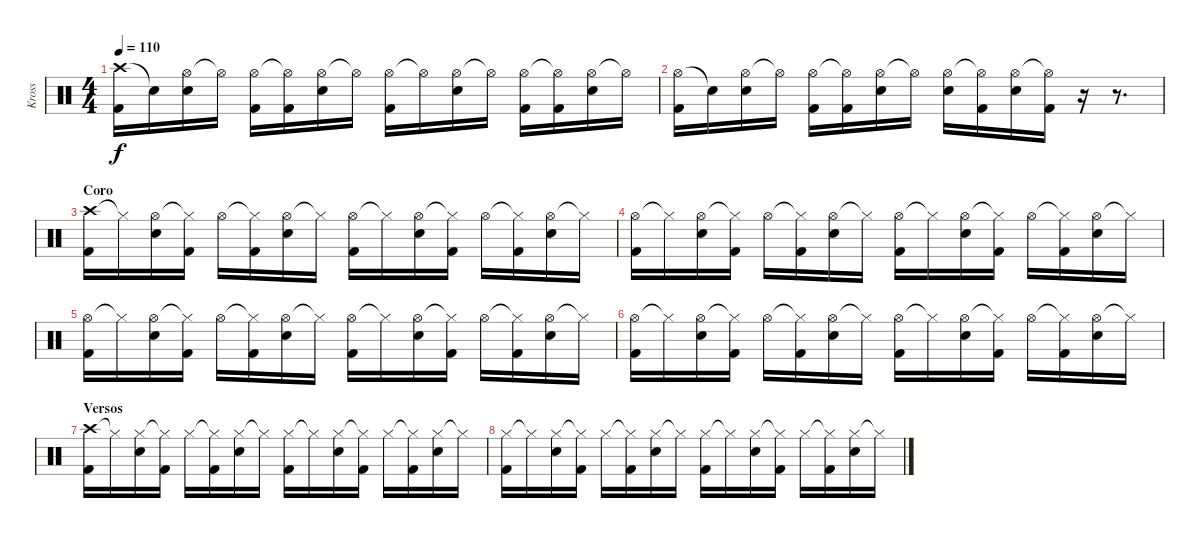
\track ("Kross" "Kross") {instrument percussion}
\staff {score}
\articulation defaults
\ts (4 4)
\tempo 110
\clef neutral
\ks c
("Crash high (hit)" "Kick (hit) 2").16{dy f} "Snare (hit)"{t}.16 ("Hi-Hat (open)" "Snare (hit) 2").16 "Hi-Hat (open)"{t}.16 ("Hi-Hat (open)" "Kick (hit) 2").16 ("Hi-Hat (open)"{t} "Kick (hit) 2").16 ("Hi-Hat (open)" "Snare (hit) 2").16 "Hi-Hat (open)"{t}.16 ("Hi-Hat (open)" "Kick (hit) 2").16 "Hi-Hat (open)"{t}.16 ("Hi-Hat (open)" "Snare (hit) 2").16 "Hi-Hat (open)"{t}.16 ("Hi-Hat (open)" "Kick (hit) 2").16 ("Hi-Hat (open)"{t} "Kick (hit) 2").16 ("Hi-Hat (open)" "Snare (hit) 2").16 "Hi-Hat (open)"{t}.16 |
("Hi-Hat (open)" "Kick (hit) 2").16 "Snare (hit)"{t}.16 ("Hi-Hat (open)" "Snare (hit) 2").16 "Hi-Hat (open)"{t}.16 ("Hi-Hat (open)" "Kick (hit) 2").16 ("Hi-Hat (open)"{t} "Kick (hit) 2").16 ("Hi-Hat (open)" "Snare (hit) 2").16 "Hi-Hat (open)"{t}.16 ("Hi-Hat (open)" "Snare (hit) 2").16 ("Hi-Hat (open)"{t} "Kick (hit) 2").16 ("Hi-Hat (open)" "Snare (hit) 2").16 ("Hi-Hat (open)"{t} "Kick (hit) 2").16 r.16 r.8{d} |
\section ("" "Coro")
("Crash high (hit)" "Kick (hit) 2").16 "Hi-Hat (closed)"{t}.16 ("Hi-Hat (open)" "Snare (hit) 2").16 ("Hi-Hat (closed)"{t} "Kick (hit) 2").16 "Hi-Hat (open)".16 ("Hi-Hat (closed)"{t} "Kick (hit) 2").16 ("Hi-Hat (open)" "Snare (hit) 2").16 "Hi-Hat (closed)"{t}.16 ("Hi-Hat (open)" "Kick (hit) 2").16 "Hi-Hat (closed)"{t}.16 ("Hi-Hat (open)" "Snare (hit) 2").16 ("Hi-Hat (closed)"{t} "Kick (hit) 2").16 "Hi-Hat (open)".16 ("Hi-Hat (closed)"{t} "Kick (hit) 2").16 ("Hi-Hat (open)" "Snare (hit) 2").16 "Hi-Hat (closed)"{t}.16 |
("Hi-Hat (open)" "Kick (hit) 2").16 "Hi-Hat (closed)"{t}.16 ("Hi-Hat (open)" "Snare (hit) 2").16 ("Hi-Hat (closed)"{t} "Kick (hit) 2").16 "Hi-Hat (open)".16 ("Hi-Hat (closed)"{t} "Kick (hit) 2").16 ("Hi-Hat (open)" "Snare (hit) 2").16 "Hi-Hat (closed)"{t}.16 ("Hi-Hat (open)" "Kick (hit) 2").16 "Hi-Hat (closed)"{t}.16 ("Hi-Hat (open)" "Snare (hit) 2").16 ("Hi-Hat (closed)"{t} "Kick (hit) 2").16 "Hi-Hat (open)".16 ("Hi-Hat (closed)"{t} "Kick (hit) 2").16 ("Hi-Hat (open)" "Snare (hit) 2").16 "Hi-Hat (closed)"{t}.16 |
("Hi-Hat (open)" "Kick (hit) 2").16 "Hi-Hat (closed)"{t}.16 ("Hi-Hat (open)" "Snare (hit) 2").16 ("Hi-Hat (closed)"{t} "Kick (hit) 2").16 "Hi-Hat (open)".16 ("Hi-Hat (closed)"{t} "Kick (hit) 2").16 ("Hi-Hat (open)" "Snare (hit) 2").16 "Hi-Hat (closed)"{t}.16 ("Hi-Hat (open)" "Kick (hit) 2").16 "Hi-Hat (closed)"{t}.16 ("Hi-Hat (open)" "Snare (hit) 2").16 ("Hi-Hat (closed)"{t} "Kick (hit) 2").16 "Hi-Hat (open)".16 ("Hi-Hat (closed)"{t} "Kick (hit) 2").16 ("Hi-Hat (open)" "Snare (hit) 2").16 "Hi-Hat (closed)"{t}.16 |
("Hi-Hat (open)" "Kick (hit) 2").16 "Hi-Hat (closed)"{t}.16 ("Hi-Hat (open)" "Snare (hit) 2").16 ("Hi-Hat (closed)"{t} "Kick (hit) 2").16 "Hi-Hat (open)".16 ("Hi-Hat (closed)"{t} "Kick (hit) 2").16 ("Hi-Hat (open)" "Snare (hit) 2").16 "Hi-Hat (closed)"{t}.16 ("Hi-Hat (open)" "Kick (hit) 2").16 "Hi-Hat (closed)"{t}.16 ("Hi-Hat (open)" "Snare (hit) 2").16 ("Hi-Hat (closed)"{t} "Kick (hit) 2").16 "Hi-Hat (open)".16 ("Hi-Hat (closed)"{t} "Kick (hit) 2").16 ("Hi-Hat (open)" "Snare (hit) 2").16 "Hi-Hat (closed)"{t}.16 |
\section ("" "Versos")
("Crash high (hit)" "Kick (hit) 2").16 "Hi-Hat (closed)"{t}.16 ("Hi-Hat (closed)" "Snare (hit) 2").16 ("Hi-Hat (closed)"{t} "Kick (hit) 2").16 "Hi-Hat (closed)".16 ("Hi-Hat (closed)"{t} "Kick (hit) 2").16 ("Hi-Hat (closed)" "Snare (hit) 2").16 "Hi-Hat (closed)"{t}.16 ("Hi-Hat (closed)" "Kick (hit) 2").16 "Hi-Hat (closed)"{t}.16 ("Hi-Hat (closed)" "Snare (hit) 2").16 ("Hi-Hat (closed)"{t} "Kick (hit) 2").16 "Hi-Hat (closed)".16 ("Hi-Hat (closed)"{t} "Kick (hit) 2").16 ("Hi-Hat (closed)" "Snare (hit) 2").16 "Hi-Hat (closed)"{t}.16 |
("Hi-Hat (closed)" "Kick (hit) 2").16 "Hi-Hat (closed)"{t}.16 ("Hi-Hat (closed)" "Snare (hit) 2").16 ("Hi-Hat (closed)"{t} "Kick (hit) 2").16 "Hi-Hat (closed)".16 ("Hi-Hat (closed)"{t} "Kick (hit) 2").16 ("Hi-Hat (closed)" "Snare (hit) 2").16 "Hi-Hat (closed)"{t}.16 ("Hi-Hat (closed)" "Kick (hit) 2").16 "Hi-Hat (closed)"{t}.16 ("Hi-Hat (closed)" "Snare (hit) 2").16 ("Hi-Hat (closed)"{t} "Kick (hit) 2").16 "Hi-Hat (closed)".16 ("Hi-Hat (closed)"{t} "Kick (hit) 2").16 ("Hi-Hat (closed)" "Snare (hit) 2").16 "Hi-Hat (closed)"{t}.16
